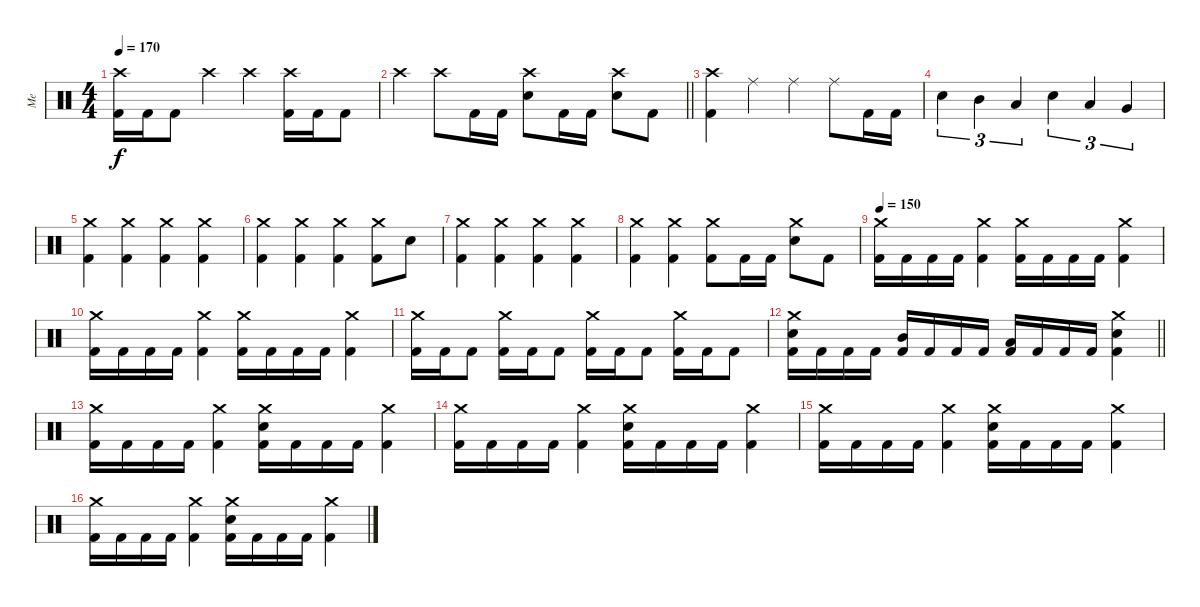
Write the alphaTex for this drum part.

\track ("Me" "Me") {instrument percussion}
\staff {score}
\articulation defaults
\ts (4 4)
\tempo 170
\clef neutral
\ks c
("Crash high (hit)" "Kick (hit) 2").16{dy f} "Kick (hit) 2".16 "Kick (hit) 2".8 "Crash high (hit)".4 "Crash high (hit)".4 ("Crash high (hit)" "Kick (hit) 2").16 "Kick (hit) 2".16 "Kick (hit) 2".8 |
\barLineRight lightlight "Crash high (hit)".4 "Crash high (hit)".8 "Kick (hit) 2".16 "Kick (hit) 2".16
("Crash high (hit)" "Snare (hit) 2").8 "Kick (hit) 2".16 "Kick (hit) 2".16 ("Crash high (hit)" "Snare (hit) 2").8 "Kick (hit) 2".8 |
("Crash high (hit)" "Kick (hit) 2").4 "Ride (middle)".4 "Ride (middle)".4 "Ride (middle)".8 "Kick (hit) 2".16 "Kick (hit) 2".16 |
"Snare (hit) 2".4{tu (3 2)} "Mid Tom (hit)".4{tu (3 2)} "Low Tom (hit)".4{tu (3 2)} "Snare (hit) 2".4{tu (3 2)} "Low Tom (hit)".4{tu (3 2)} "Very Low Tom (hit)".4{tu (3 2)} |
("Crash medium (hit)" "Kick (hit) 2").4 ("Crash medium (hit)" "Kick (hit) 2").4 ("Crash medium (hit)" "Kick (hit) 2").4 ("Crash medium (hit)" "Kick (hit) 2").4 |
("Crash medium (hit)" "Kick (hit) 2").4 ("Crash medium (hit)" "Kick (hit) 2").4 ("Crash medium (hit)" "Kick (hit) 2").4 ("Crash medium (hit)" "Kick (hit) 2").8 "Snare (hit) 2".8 |
("Crash medium (hit)" "Kick (hit) 2").4 ("Crash medium (hit)" "Kick (hit) 2").4 ("Crash medium (hit)" "Kick (hit) 2").4 ("Crash medium (hit)" "Kick (hit) 2").4 |
("Crash medium (hit)" "Kick (hit) 2").4 ("Crash medium (hit)" "Kick (hit) 2").4 ("Crash medium (hit)" "Kick (hit) 2").8 "Kick (hit) 2".16 "Kick (hit) 2".16 ("Crash medium (hit)" "Snare (hit) 2").8 "Kick (hit) 2".8 |
\tempo 150
("Crash medium (hit)" "Kick (hit) 2").16 "Kick (hit) 2".16 "Kick (hit) 2".16 "Kick (hit) 2".16 ("Crash medium (hit)" "Kick (hit) 2").4 ("Crash medium (hit)" "Kick (hit) 2").16 "Kick (hit) 2".16 "Kick (hit) 2".16 "Kick (hit) 2".16 ("Crash medium (hit)" "Kick (hit) 2").4 |
("Crash medium (hit)" "Kick (hit) 2").16 "Kick (hit) 2".16 "Kick (hit) 2".16 "Kick (hit) 2".16 ("Crash medium (hit)" "Kick (hit) 2").4 ("Crash medium (hit)" "Kick (hit) 2").16 "Kick (hit) 2".16 "Kick (hit) 2".16 "Kick (hit) 2".16 ("Crash medium (hit)" "Kick (hit) 2").4 |
("Crash medium (hit)" "Kick (hit) 2").16 "Kick (hit) 2".16 "Kick (hit) 2".8 ("Crash medium (hit)" "Kick (hit) 2").16 "Kick (hit) 2".16 "Kick (hit) 2".8 ("Crash medium (hit)" "Kick (hit) 2").16 "Kick (hit) 2".16 "Kick (hit) 2".8 ("Crash medium (hit)" "Kick (hit) 2").16 "Kick (hit) 2".16 "Kick (hit) 2".8 |
\barLineRight lightlight
("Crash medium (hit)" "Snare (hit) 2" "Kick (hit) 2").16 "Kick (hit) 2".16 "Kick (hit) 2".16 "Kick (hit) 2".16 ("Mid Tom (hit)" "Kick (hit) 2").16 "Kick (hit) 2".16 "Kick (hit) 2".16 "Kick (hit) 2".16 ("Low Tom (hit)" "Kick (hit) 2").16 "Kick (hit) 2".16 "Kick (hit) 2".16 "Kick (hit) 2".16 ("Crash medium (hit)" "Snare (hit) 2" "Kick (hit) 2").4 |
("Crash medium (hit)" "Kick (hit) 2").16 "Kick (hit) 2".16 "Kick (hit) 2".16 "Kick (hit) 2".16 ("Crash medium (hit)" "Kick (hit) 2").4 ("Crash medium (hit)" "Snare (hit) 2" "Kick (hit) 2").16 "Kick (hit) 2".16 "Kick (hit) 2".16 "Kick (hit) 2".16 ("Crash medium (hit)" "Kick (hit) 2").4 |
("Crash medium (hit)" "Kick (hit) 2").16 "Kick (hit) 2".16 "Kick (hit) 2".16 "Kick (hit) 2".16 ("Crash medium (hit)" "Kick (hit) 2").4 ("Crash medium (hit)" "Snare (hit) 2" "Kick (hit) 2").16 "Kick (hit) 2".16 "Kick (hit) 2".16 "Kick (hit) 2".16 ("Crash medium (hit)" "Kick (hit) 2").4 |
("Crash medium (hit)" "Kick (hit) 2").16 "Kick (hit) 2".16 "Kick (hit) 2".16 "Kick (hit) 2".16 ("Crash medium (hit)" "Kick (hit) 2").4 ("Crash medium (hit)" "Snare (hit) 2" "Kick (hit) 2").16 "Kick (hit) 2".16 "Kick (hit) 2".16 "Kick (hit) 2".16 ("Crash medium (hit)" "Kick (hit) 2").4 |
("Crash medium (hit)" "Kick (hit) 2").16 "Kick (hit) 2".16 "Kick (hit) 2".16 "Kick (hit) 2".16 ("Crash medium (hit)" "Kick (hit) 2").4 ("Crash medium (hit)" "Snare (hit) 2" "Kick (hit) 2").16 "Kick (hit) 2".16 "Kick (hit) 2".16 "Kick (hit) 2".16 ("Crash medium (hit)" "Kick (hit) 2").4
